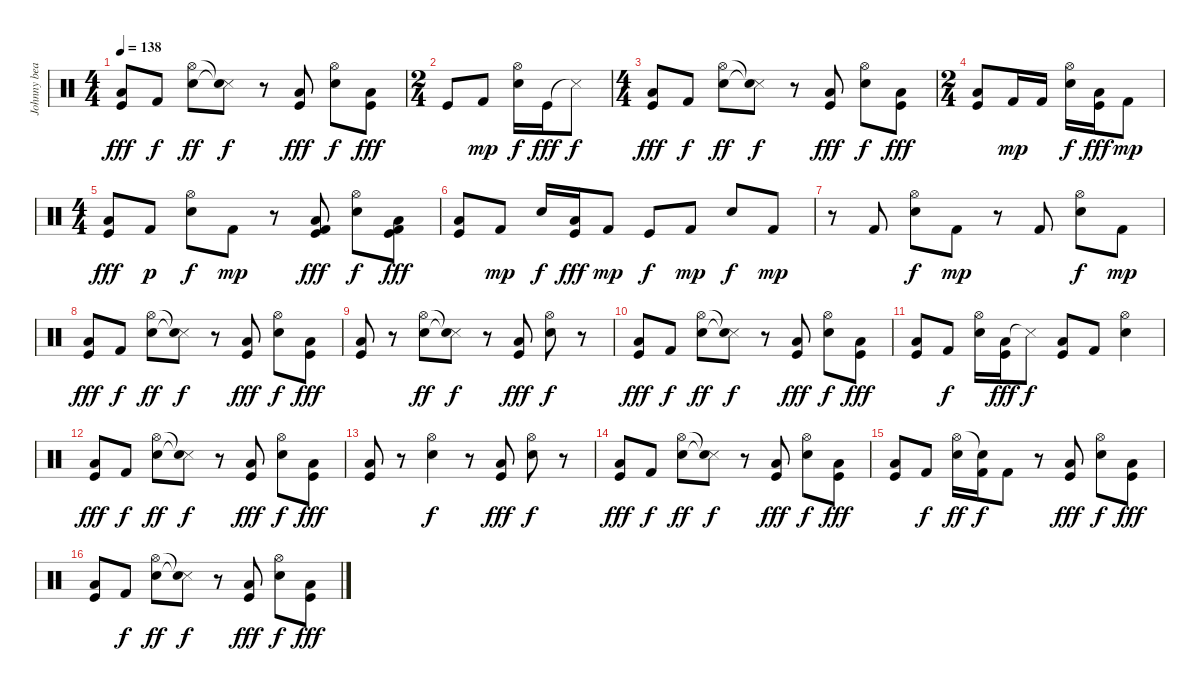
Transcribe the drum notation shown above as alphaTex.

\track ("Johnny beat" "Johnny bea") {instrument percussion}
\staff {score}
\articulation defaults
\ts (4 4)
\tempo 138
\clef neutral
\ks c
("Low Tom (hit)" "Kick (hit)").8{dy fff} "Kick (hit) 2".8{dy f} ("Electric Snare (hit)" "Hi-Hat (open)").8{dy ff} ("Snare (side stick) 3"{t} "Snare (hit)"{t}).8{dy f} r.8 ("Low Tom (hit)" "Kick (hit)").8{dy fff} ("Electric Snare (hit)" "Hi-Hat (open)").8{dy f} ("Low Tom (hit)" "Kick (hit)").8{dy fff} |
\ts (2 4)
"Kick (hit)".8 "Kick (hit) 2".8{dy mp} ("Electric Snare (hit)" "Hi-Hat (open)").16{dy f} "Kick (hit)".16{dy fff} "Snare (side stick) 3"{t}.8{dy f} |
\ts (4 4)
("Low Tom (hit)" "Kick (hit)").8{dy fff} "Kick (hit) 2".8{dy f} ("Electric Snare (hit)" "Hi-Hat (open)").8{dy ff} ("Snare (side stick) 3"{t} "Snare (hit)"{t}).8{dy f} r.8 ("Low Tom (hit)" "Kick (hit)").8{dy fff} ("Electric Snare (hit)" "Hi-Hat (open)").8{dy f} ("Low Tom (hit)" "Kick (hit)").8{dy fff} |
\ts (2 4)
("Low Tom (hit)" "Kick (hit)").8 "Kick (hit) 2".16{dy mp} "Kick (hit) 2".16 ("Electric Snare (hit)" "Hi-Hat (open)").16{dy f} ("Low Tom (hit)" "Kick (hit)").16{dy fff} "Kick (hit) 2".8{dy mp} |
\ts (4 4)
("Low Tom (hit)" "Kick (hit)").8{dy fff} "Kick (hit) 2".8{dy p} ("Electric Snare (hit)" "Hi-Hat (open)").8{dy f} "Kick (hit) 2".8{dy mp} r.8 ("Kick (hit) 2" "Low Tom (hit)" "Kick (hit)").8{dy fff} ("Electric Snare (hit)" "Hi-Hat (open)").8{dy f} ("Kick (hit) 2" "Low Tom (hit)" "Kick (hit)").8{dy fff} |
("Low Tom (hit)" "Kick (hit)").8 "Kick (hit) 2".8{dy mp} "Electric Snare (hit)".16{dy f} ("Low Tom (hit)" "Kick (hit)").16{dy fff} "Kick (hit) 2".8{dy mp} "Kick (hit)".8{dy f} "Kick (hit) 2".8{dy mp} "Electric Snare (hit)".8{dy f} "Kick (hit) 2".8{dy mp} |
r.8 "Kick (hit) 2".8 ("Electric Snare (hit)" "Hi-Hat (open)").8{dy f} "Kick (hit) 2".8{dy mp} r.8 "Kick (hit) 2".8 ("Electric Snare (hit)" "Hi-Hat (open)").8{dy f} "Kick (hit) 2".8{dy mp} |
("Low Tom (hit)" "Kick (hit)").8{dy fff} "Kick (hit) 2".8{dy f} ("Electric Snare (hit)" "Hi-Hat (open)").8{dy ff} ("Snare (side stick) 3"{t} "Snare (hit)"{t}).8{dy f} r.8 ("Low Tom (hit)" "Kick (hit)").8{dy fff} ("Electric Snare (hit)" "Hi-Hat (open)").8{dy f} ("Low Tom (hit)" "Kick (hit)").8{dy fff} |
("Low Tom (hit)" "Kick (hit)").8 r.8 ("Electric Snare (hit)" "Hi-Hat (open)").8{dy ff} ("Snare (side stick) 3"{t} "Snare (hit)"{t}).8{dy f} r.8 ("Low Tom (hit)" "Kick (hit)").8{dy fff} ("Electric Snare (hit)" "Hi-Hat (open)").8{dy f} r.8 |
("Low Tom (hit)" "Kick (hit)").8{dy fff} "Kick (hit) 2".8{dy f} ("Electric Snare (hit)" "Hi-Hat (open)").8{dy ff} ("Snare (side stick) 3"{t} "Snare (hit)"{t}).8{dy f} r.8 ("Low Tom (hit)" "Kick (hit)").8{dy fff} ("Electric Snare (hit)" "Hi-Hat (open)").8{dy f} ("Low Tom (hit)" "Kick (hit)").8{dy fff} |
("Low Tom (hit)" "Kick (hit)").8 "Kick (hit) 2".8{dy f} ("Electric Snare (hit)" "Hi-Hat (open)").16 ("Low Tom (hit)" "Kick (hit)").16{dy fff} "Snare (side stick) 3"{t}.8{dy f} ("Kick (hit)" "Low Tom (hit)").8 "Kick (hit) 2".8 ("Electric Snare (hit)" "Hi-Hat (open)").4 |
("Low Tom (hit)" "Kick (hit)").8{dy fff} "Kick (hit) 2".8{dy f} ("Electric Snare (hit)" "Hi-Hat (open)").8{dy ff} ("Snare (side stick) 3"{t} "Snare (hit)"{t}).8{dy f} r.8 ("Low Tom (hit)" "Kick (hit)").8{dy fff} ("Electric Snare (hit)" "Hi-Hat (open)").8{dy f} ("Low Tom (hit)" "Kick (hit)").8{dy fff} |
("Low Tom (hit)" "Kick (hit)").8 r.8 ("Electric Snare (hit)" "Hi-Hat (open)").4{dy f} r.8 ("Low Tom (hit)" "Kick (hit)").8{dy fff} ("Electric Snare (hit)" "Hi-Hat (open)").8{dy f} r.8 |
("Low Tom (hit)" "Kick (hit)").8{dy fff} "Kick (hit) 2".8{dy f} ("Electric Snare (hit)" "Hi-Hat (open)").8{dy ff} ("Snare (side stick) 3"{t} "Snare (hit)"{t}).8{dy f} r.8 ("Low Tom (hit)" "Kick (hit)").8{dy fff} ("Electric Snare (hit)" "Hi-Hat (open)").8{dy f} ("Low Tom (hit)" "Kick (hit)").8{dy fff} |
("Low Tom (hit)" "Kick (hit)").8 "Kick (hit) 2".8{dy f} ("Electric Snare (hit)" "Hi-Hat (open)").16{dy ff} ("Kick (hit) 2" "Snare (hit)"{t}).16{dy f} "Kick (hit) 2".8 r.8 ("Low Tom (hit)" "Kick (hit)").8{dy fff} ("Electric Snare (hit)" "Hi-Hat (open)").8{dy f} ("Low Tom (hit)" "Kick (hit)").8{dy fff} |
("Low Tom (hit)" "Kick (hit)").8 "Kick (hit) 2".8{dy f} ("Electric Snare (hit)" "Hi-Hat (open)").8{dy ff} ("Snare (side stick) 3"{t} "Snare (hit)"{t}).8{dy f} r.8 ("Low Tom (hit)" "Kick (hit)").8{dy fff} ("Electric Snare (hit)" "Hi-Hat (open)").8{dy f} ("Low Tom (hit)" "Kick (hit)").8{dy fff}
